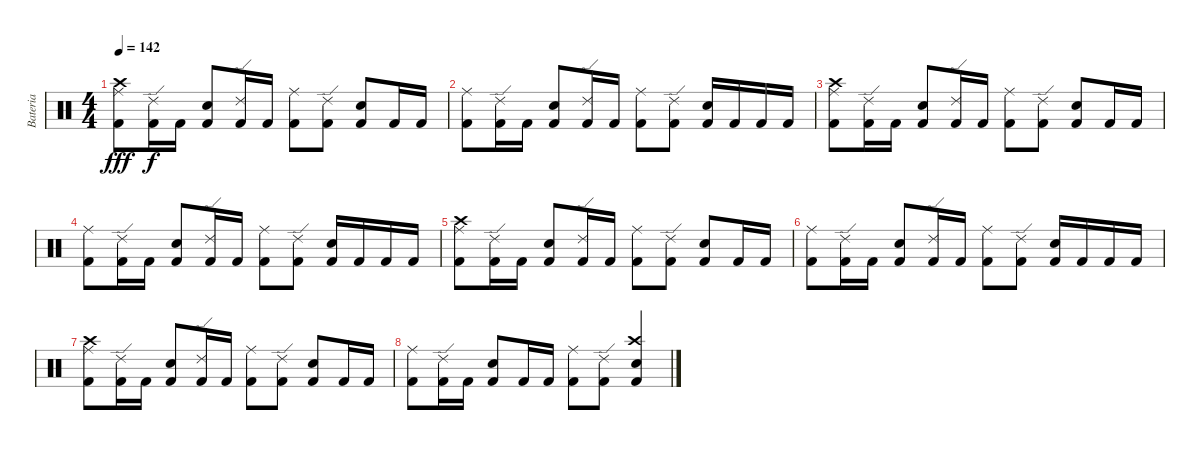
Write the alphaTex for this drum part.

\track ("Bateria" "Bateria") {instrument percussion}
\staff {score}
\articulation defaults
\ts (4 4)
\tempo 142
\clef neutral
\ks c
("Ride (middle)" "Kick (hit) 2" "Crash high (hit)").8{dy fff} ("Ride (edge) 2" "Kick (hit) 2").16{dy f} "Kick (hit) 2".16 ("Electric Snare (hit)" "Kick (hit) 2").8 ("Ride (edge) 2" "Kick (hit) 2").16 "Kick (hit) 2".16 ("Ride (middle)" "Kick (hit) 2").8 ("Ride (edge) 2" "Kick (hit) 2").8 ("Electric Snare (hit)" "Kick (hit) 2").8 "Kick (hit) 2".16 "Kick (hit) 2".16 |
("Ride (middle)" "Kick (hit) 2").8 ("Ride (edge) 2" "Kick (hit) 2").16 "Kick (hit) 2".16 ("Electric Snare (hit)" "Kick (hit) 2").8 ("Ride (edge) 2" "Kick (hit) 2").16 "Kick (hit) 2".16 ("Ride (middle)" "Kick (hit) 2").8 ("Ride (edge) 2" "Kick (hit) 2").8 ("Electric Snare (hit)" "Kick (hit) 2").16 "Kick (hit) 2".16 "Kick (hit) 2".16 "Kick (hit) 2".16 |
("Ride (middle)" "Kick (hit) 2" "Crash high (hit)").8 ("Ride (edge) 2" "Kick (hit) 2").16 "Kick (hit) 2".16 ("Electric Snare (hit)" "Kick (hit) 2").8 ("Ride (edge) 2" "Kick (hit) 2").16 "Kick (hit) 2".16 ("Ride (middle)" "Kick (hit) 2").8 ("Ride (edge) 2" "Kick (hit) 2").8 ("Electric Snare (hit)" "Kick (hit) 2").8 "Kick (hit) 2".16 "Kick (hit) 2".16 |
("Ride (middle)" "Kick (hit) 2").8 ("Ride (edge) 2" "Kick (hit) 2").16 "Kick (hit) 2".16 ("Electric Snare (hit)" "Kick (hit) 2").8 ("Ride (edge) 2" "Kick (hit) 2").16 "Kick (hit) 2".16 ("Ride (middle)" "Kick (hit) 2").8 ("Ride (edge) 2" "Kick (hit) 2").8 ("Electric Snare (hit)" "Kick (hit) 2").16 "Kick (hit) 2".16 "Kick (hit) 2".16 "Kick (hit) 2".16 |
("Ride (middle)" "Kick (hit) 2" "Crash high (hit)").8 ("Ride (edge) 2" "Kick (hit) 2").16 "Kick (hit) 2".16 ("Electric Snare (hit)" "Kick (hit) 2").8 ("Ride (edge) 2" "Kick (hit) 2").16 "Kick (hit) 2".16 ("Ride (middle)" "Kick (hit) 2").8 ("Ride (edge) 2" "Kick (hit) 2").8 ("Electric Snare (hit)" "Kick (hit) 2").8 "Kick (hit) 2".16 "Kick (hit) 2".16 |
("Ride (middle)" "Kick (hit) 2").8 ("Ride (edge) 2" "Kick (hit) 2").16 "Kick (hit) 2".16 ("Electric Snare (hit)" "Kick (hit) 2").8 ("Ride (edge) 2" "Kick (hit) 2").16 "Kick (hit) 2".16 ("Ride (middle)" "Kick (hit) 2").8 ("Ride (edge) 2" "Kick (hit) 2").8 ("Electric Snare (hit)" "Kick (hit) 2").16 "Kick (hit) 2".16 "Kick (hit) 2".16 "Kick (hit) 2".16 |
("Ride (middle)" "Kick (hit) 2" "Crash high (hit)").8 ("Ride (edge) 2" "Kick (hit) 2").16 "Kick (hit) 2".16 ("Electric Snare (hit)" "Kick (hit) 2").8 ("Ride (edge) 2" "Kick (hit) 2").16 "Kick (hit) 2".16 ("Ride (middle)" "Kick (hit) 2").8 ("Ride (edge) 2" "Kick (hit) 2").8 ("Electric Snare (hit)" "Kick (hit) 2").8 "Kick (hit) 2".16 "Kick (hit) 2".16 |
("Ride (middle)" "Kick (hit) 2").8 ("Ride (edge) 2" "Kick (hit) 2").16 "Kick (hit) 2".16 ("Electric Snare (hit)" "Kick (hit) 2").8 "Kick (hit) 2".16 "Kick (hit) 2".16 ("Ride (middle)" "Kick (hit) 2").8 ("Ride (edge) 2" "Kick (hit) 2").8 ("Electric Snare (hit)" "Kick (hit) 2" "Crash high (hit)").4
